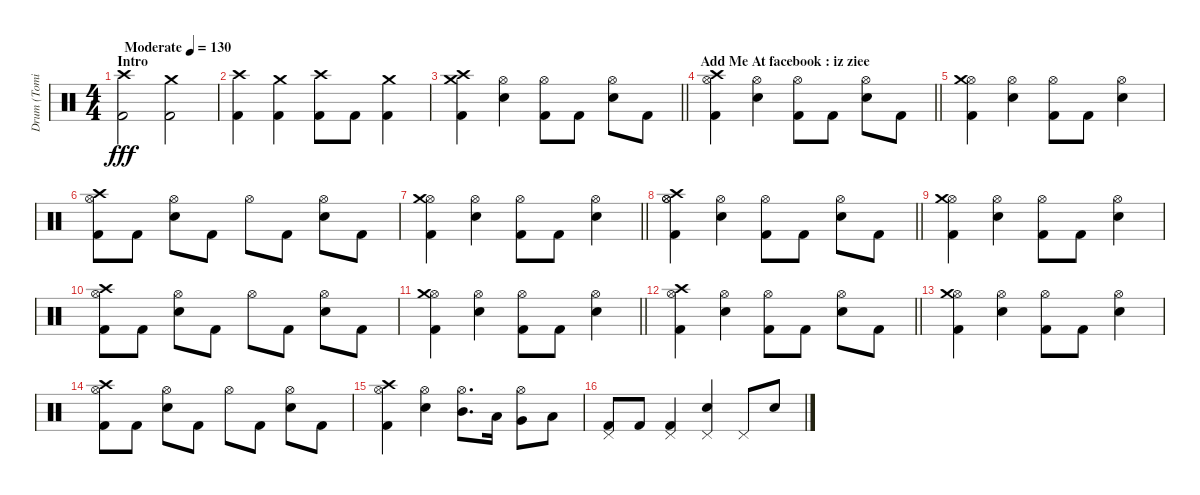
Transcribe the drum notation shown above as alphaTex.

\track ("Drum (Tomi)" "Drum (Tomi") {instrument percussion}
\staff {score}
\articulation defaults
\ts (4 4)
\section ("" "Intro")
\tempo (130 "Moderate")
\clef neutral
\ks c
("Crash high (hit)" "Kick (hit) 2").2{dy fff} ("Crash medium (hit)" "Kick (hit) 2").2 |
("Crash high (hit)" "Kick (hit) 2").4 ("Crash medium (hit)" "Kick (hit) 2").4 ("Crash high (hit)" "Kick (hit) 2").8 "Kick (hit) 2".8 ("Crash medium (hit)" "Kick (hit) 2").4 |
\barLineRight lightlight
("Crash high (hit)" "Kick (hit) 2" "Crash medium (hit)").4 ("Hi-Hat (open)" "Electric Snare (hit)").4 ("Hi-Hat (open)" "Kick (hit) 2").8 "Kick (hit) 2".8 ("Hi-Hat (open)" "Electric Snare (hit)").8 "Kick (hit) 2".8 |
\section ("" "Add Me At facebook : iz ziee")
\barLineRight lightlight
("Kick (hit) 2" "Hi-Hat (open)" "Crash high (hit)").4 ("Hi-Hat (open)" "Electric Snare (hit)").4 ("Hi-Hat (open)" "Kick (hit) 2").8 "Kick (hit) 2".8 ("Hi-Hat (open)" "Electric Snare (hit)").8 "Kick (hit) 2".8 |
("Kick (hit) 2" "Hi-Hat (open)" "Crash medium (hit)").4 ("Hi-Hat (open)" "Electric Snare (hit)").4 ("Hi-Hat (open)" "Kick (hit) 2").8 "Kick (hit) 2".8 ("Hi-Hat (open)" "Electric Snare (hit)").4 |
("Kick (hit) 2" "Hi-Hat (open)" "Crash high (hit)").8 "Kick (hit) 2".8 ("Hi-Hat (open)" "Electric Snare (hit)").8 "Kick (hit) 2".8 "Hi-Hat (open)".8 "Kick (hit) 2".8 ("Hi-Hat (open)" "Electric Snare (hit)").8 "Kick (hit) 2".8 |
\barLineRight lightlight
("Hi-Hat (open)" "Crash medium (hit)" "Kick (hit) 2").4 ("Hi-Hat (open)" "Electric Snare (hit)").4 ("Hi-Hat (open)" "Kick (hit) 2").8 "Kick (hit) 2".8 ("Hi-Hat (open)" "Electric Snare (hit)").4 |
\barLineRight lightlight
("Hi-Hat (open)" "Kick (hit) 2" "Hi-Hat (open)" "Crash high (hit)").4 ("Hi-Hat (open)" "Electric Snare (hit)").4 ("Hi-Hat (open)" "Kick (hit) 2").8 "Kick (hit) 2".8 ("Hi-Hat (open)" "Electric Snare (hit)").8 "Kick (hit) 2".8 |
("Kick (hit) 2" "Hi-Hat (open)" "Crash medium (hit)").4 ("Hi-Hat (open)" "Electric Snare (hit)").4 ("Hi-Hat (open)" "Kick (hit) 2").8 "Kick (hit) 2".8 ("Hi-Hat (open)" "Electric Snare (hit)").4 |
("Hi-Hat (open)" "Kick (hit) 2" "Crash high (hit)").8 "Kick (hit) 2".8 ("Hi-Hat (open)" "Electric Snare (hit)").8 "Kick (hit) 2".8 "Hi-Hat (open)".8 "Kick (hit) 2".8 ("Hi-Hat (open)" "Electric Snare (hit)").8 "Kick (hit) 2".8 |
\barLineRight lightlight
("Hi-Hat (open)" "Crash medium (hit)" "Kick (hit) 2").4 ("Hi-Hat (open)" "Electric Snare (hit)").4 ("Hi-Hat (open)" "Kick (hit) 2").8 "Kick (hit) 2".8 ("Hi-Hat (open)" "Electric Snare (hit)").4 |
\barLineRight lightlight
("Kick (hit) 2" "Hi-Hat (open)" "Crash high (hit)").4 ("Hi-Hat (open)" "Electric Snare (hit)").4 ("Kick (hit) 2" "Hi-Hat (open)").8 "Kick (hit) 2".8 ("Hi-Hat (open)" "Electric Snare (hit)").8 "Kick (hit) 2".8 |
("Hi-Hat (open)" "Kick (hit) 2" "Crash medium (hit)").4 ("Hi-Hat (open)" "Electric Snare (hit)").4 ("Kick (hit) 2" "Hi-Hat (open)").8 "Kick (hit) 2".8 ("Hi-Hat (open)" "Electric Snare (hit)").4 |
("Hi-Hat (open)" "Kick (hit) 2" "Crash high (hit)").8 "Kick (hit) 2".8 ("Hi-Hat (open)" "Electric Snare (hit)").8 "Kick (hit) 2".8 "Hi-Hat (open)".8 "Kick (hit) 2".8 ("Hi-Hat (open)" "Electric Snare (hit)").8 "Kick (hit) 2".8 |
("Kick (hit) 2" "Crash high (hit)" "Hi-Hat (open)").4 ("Hi-Hat (open)" "Electric Snare (hit)").4 ("Mid Tom (hit)" "Hi-Hat (open)").8{d} "Low Tom (hit)".16 ("Hi-Hat (open)" "Very Low Tom (hit)").8 "Low Floor Tom (hit)".8 |
("Pedal Hi-Hat (hit)" "Kick (hit) 2").8 "Kick (hit) 2".8 ("Pedal Hi-Hat (hit)" "Kick (hit) 2").4 ("Pedal Hi-Hat (hit)" "Electric Snare (hit)").4 "Pedal Hi-Hat (hit)".8 "Electric Snare (hit)".8
